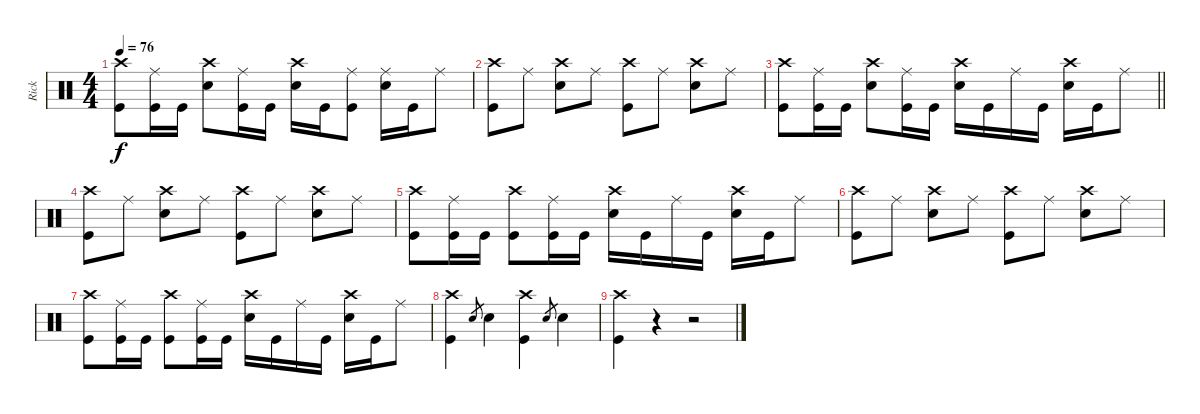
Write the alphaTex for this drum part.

\track ("Rick" "Rick") {instrument percussion}
\staff {score}
\articulation defaults
\ts (4 4)
\tempo 76
\clef neutral
\ks aminor
("Crash high (hit)" "Kick (hit)").8{dy f} ("Ride (middle)" "Kick (hit)").16 "Kick (hit)".16 ("Crash high (hit)" "Snare (hit) 2").8 ("Ride (middle)" "Kick (hit)").16 "Kick (hit)".16 ("Crash high (hit)" "Snare (hit) 2").16 "Kick (hit)".16 ("Ride (middle)" "Kick (hit)").8 ("Ride (middle)" "Snare (hit) 2").16 "Kick (hit)".16 "Ride (middle)".8 |
("Crash high (hit)" "Kick (hit)").8 "Ride (middle)".8 ("Crash high (hit)" "Snare (hit) 2").8 "Ride (middle)".8 ("Crash high (hit)" "Kick (hit)").8 "Ride (middle)".8 ("Crash high (hit)" "Snare (hit) 2").8 "Ride (middle)".8 |
\barLineRight lightlight
("Crash high (hit)" "Kick (hit)").8 ("Ride (middle)" "Kick (hit)").16 "Kick (hit)".16 ("Crash high (hit)" "Snare (hit) 2").8 ("Ride (middle)" "Kick (hit)").16 "Kick (hit)".16 ("Crash high (hit)" "Snare (hit) 2").16 "Kick (hit)".16 "Ride (middle)".16 "Kick (hit)".16 ("Crash high (hit)" "Snare (hit) 2").16 "Kick (hit)".16 "Ride (middle)".8 |
("Crash high (hit)" "Kick (hit)").8 "Ride (middle)".8 ("Crash high (hit)" "Snare (hit) 2").8 "Ride (middle)".8 ("Crash high (hit)" "Kick (hit)").8 "Ride (middle)".8 ("Crash high (hit)" "Snare (hit) 2").8 "Ride (middle)".8 |
("Crash high (hit)" "Kick (hit)").8 ("Ride (middle)" "Kick (hit)").16 "Kick (hit)".16 ("Crash high (hit)" "Kick (hit)").8 ("Ride (middle)" "Kick (hit)").16 "Kick (hit)".16 ("Crash high (hit)" "Snare (hit) 2").16 "Kick (hit)".16 "Ride (middle)".16 "Kick (hit)".16 ("Crash high (hit)" "Snare (hit) 2").16 "Kick (hit)".16 "Ride (middle)".8 |
("Crash high (hit)" "Kick (hit)").8 "Ride (middle)".8 ("Crash high (hit)" "Snare (hit) 2").8 "Ride (middle)".8 ("Crash high (hit)" "Kick (hit)").8 "Ride (middle)".8 ("Crash high (hit)" "Snare (hit) 2").8 "Ride (middle)".8 |
("Crash high (hit)" "Kick (hit)").8 ("Ride (middle)" "Kick (hit)").16 "Kick (hit)".16 ("Crash high (hit)" "Kick (hit)").8 ("Ride (middle)" "Kick (hit)").16 "Kick (hit)".16 ("Crash high (hit)" "Snare (hit) 2").16 "Kick (hit)".16 "Ride (middle)".16 "Kick (hit)".16 ("Crash high (hit)" "Snare (hit) 2").16 "Kick (hit)".16 "Ride (middle)".8 |
("Crash high (hit)" "Kick (hit)").4 "Snare (hit) 2".8{gr} "Snare (hit) 2".4 ("Crash high (hit)" "Kick (hit)").4 "Snare (hit) 2".8{gr} "Snare (hit) 2".4 |
("Crash high (hit)" "Kick (hit)").4 r.4 r.2
